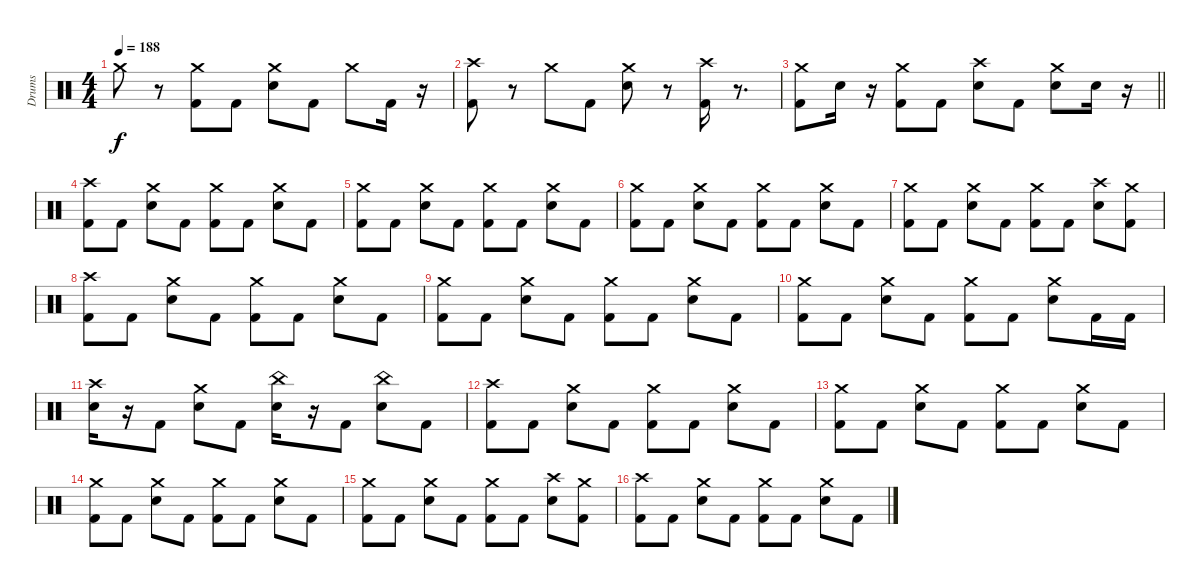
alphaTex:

\track ("Drums" "Drums") {instrument percussion}
\staff {score}
\articulation defaults
\ts (4 4)
\tempo 188
\clef neutral
\ks c "Crash medium (hit)".8{dy f}
r.8 ("Kick (hit) 2" "Crash medium (hit)").8 "Kick (hit) 2".8 ("Snare (hit) 2" "Crash medium (hit)").8 "Kick (hit) 2".8 "Crash medium (hit)".8 "Kick (hit) 2".16 r.16 |
("Kick (hit) 2" "Crash high (hit)").8 r.8 "Crash medium (hit)".8 "Kick (hit) 2".8 ("Snare (hit) 2" "Crash medium (hit)").8 r.8 ("Kick (hit) 2" "Crash high (hit)").16 r.8{d} |
\barLineRight lightlight
("Kick (hit) 2" "Crash medium (hit)").8 "Snare (hit) 2".16 r.16 ("Kick (hit) 2" "Crash medium (hit)").8 "Kick (hit) 2".8 ("Snare (hit) 2" "Crash high (hit)").8 "Kick (hit) 2".8 ("Snare (hit) 2" "Crash medium (hit)").8 "Snare (hit) 2".16 r.16 |
\section ("" " ")
("Kick (hit) 2" "Crash high (hit)").8 "Kick (hit) 2".8 ("Snare (hit) 2" "Crash medium (hit)").8 "Kick (hit) 2".8 ("Kick (hit) 2" "Crash medium (hit)").8 "Kick (hit) 2".8 ("Snare (hit) 2" "Crash medium (hit)").8 "Kick (hit) 2".8 |
("Kick (hit) 2" "Crash medium (hit)").8 "Kick (hit) 2".8 ("Snare (hit) 2" "Crash medium (hit)").8 "Kick (hit) 2".8 ("Kick (hit) 2" "Crash medium (hit)").8 "Kick (hit) 2".8 ("Snare (hit) 2" "Crash medium (hit)").8 "Kick (hit) 2".8 |
("Kick (hit) 2" "Crash medium (hit)").8 "Kick (hit) 2".8 ("Snare (hit) 2" "Crash medium (hit)").8 "Kick (hit) 2".8 ("Kick (hit) 2" "Crash medium (hit)").8 "Kick (hit) 2".8 ("Snare (hit) 2" "Crash medium (hit)").8 "Kick (hit) 2".8 |
("Kick (hit) 2" "Crash medium (hit)").8 "Kick (hit) 2".8 ("Snare (hit) 2" "Crash medium (hit)").8 "Kick (hit) 2".8 ("Kick (hit) 2" "Crash medium (hit)").8 "Kick (hit) 2".8 ("Snare (hit) 2" "Crash high (hit)").8 ("Kick (hit) 2" "Crash medium (hit)").8 |
("Kick (hit) 2" "Crash high (hit)").8 "Kick (hit) 2".8 ("Snare (hit) 2" "Crash medium (hit)").8 "Kick (hit) 2".8 ("Kick (hit) 2" "Crash medium (hit)").8 "Kick (hit) 2".8 ("Snare (hit) 2" "Crash medium (hit)").8 "Kick (hit) 2".8 |
("Kick (hit) 2" "Crash medium (hit)").8 "Kick (hit) 2".8 ("Snare (hit) 2" "Crash medium (hit)").8 "Kick (hit) 2".8 ("Kick (hit) 2" "Crash medium (hit)").8 "Kick (hit) 2".8 ("Snare (hit) 2" "Crash medium (hit)").8 "Kick (hit) 2".8 |
("Kick (hit) 2" "Crash medium (hit)").8 "Kick (hit) 2".8 ("Snare (hit) 2" "Crash medium (hit)").8 "Kick (hit) 2".8 ("Kick (hit) 2" "Crash medium (hit)").8 "Kick (hit) 2".8 ("Snare (hit) 2" "Crash medium (hit)").8 "Kick (hit) 2".16 "Kick (hit) 2".16 |
("Snare (hit) 2" "Crash high (hit)").16 r.16 "Kick (hit) 2".8 ("Snare (hit) 2" "Crash medium (hit)").8 "Kick (hit) 2".8 ("Snare (hit) 2" "China (hit)").16 r.16 "Kick (hit) 2".8 ("Snare (hit) 2" "China (hit)").8 "Kick (hit) 2".8 |
("Kick (hit) 2" "Crash high (hit)").8 "Kick (hit) 2".8 ("Snare (hit) 2" "Crash medium (hit)").8 "Kick (hit) 2".8 ("Kick (hit) 2" "Crash medium (hit)").8 "Kick (hit) 2".8 ("Snare (hit) 2" "Crash medium (hit)").8 "Kick (hit) 2".8 |
("Kick (hit) 2" "Crash medium (hit)").8 "Kick (hit) 2".8 ("Snare (hit) 2" "Crash medium (hit)").8 "Kick (hit) 2".8 ("Kick (hit) 2" "Crash medium (hit)").8 "Kick (hit) 2".8 ("Snare (hit) 2" "Crash medium (hit)").8 "Kick (hit) 2".8 |
("Kick (hit) 2" "Crash medium (hit)").8 "Kick (hit) 2".8 ("Snare (hit) 2" "Crash medium (hit)").8 "Kick (hit) 2".8 ("Kick (hit) 2" "Crash medium (hit)").8 "Kick (hit) 2".8 ("Snare (hit) 2" "Crash medium (hit)").8 "Kick (hit) 2".8 |
("Kick (hit) 2" "Crash medium (hit)").8 "Kick (hit) 2".8 ("Snare (hit) 2" "Crash medium (hit)").8 "Kick (hit) 2".8 ("Kick (hit) 2" "Crash medium (hit)").8 "Kick (hit) 2".8 ("Snare (hit) 2" "Crash high (hit)").8 ("Kick (hit) 2" "Crash medium (hit)").8 |
("Kick (hit) 2" "Crash high (hit)").8 "Kick (hit) 2".8 ("Snare (hit) 2" "Crash medium (hit)").8 "Kick (hit) 2".8 ("Kick (hit) 2" "Crash medium (hit)").8 "Kick (hit) 2".8 ("Snare (hit) 2" "Crash medium (hit)").8 "Kick (hit) 2".8
